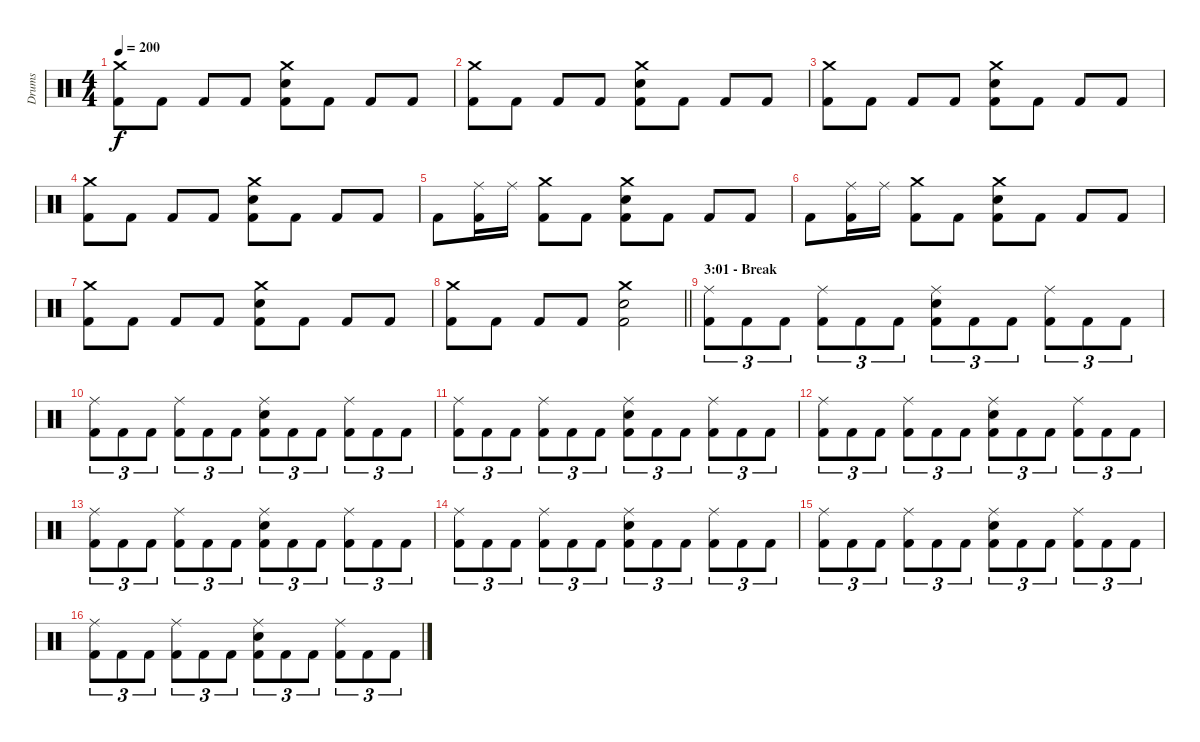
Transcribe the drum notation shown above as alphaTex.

\track ("Drums" "Drums") {instrument percussion}
\staff {score}
\articulation defaults
\ts (4 4)
\tempo 200
\clef neutral
\ks c
("Crash medium (hit)" "Kick (hit) 2").8{dy f} "Kick (hit) 2".8 "Kick (hit) 2".8 "Kick (hit) 2".8 ("Crash medium (hit)" "Electric Snare (hit)" "Kick (hit) 2").8 "Kick (hit) 2".8 "Kick (hit) 2".8 "Kick (hit) 2".8 |
("Crash medium (hit)" "Kick (hit) 2").8 "Kick (hit) 2".8 "Kick (hit) 2".8 "Kick (hit) 2".8 ("Crash medium (hit)" "Electric Snare (hit)" "Kick (hit) 2").8 "Kick (hit) 2".8 "Kick (hit) 2".8 "Kick (hit) 2".8 |
("Crash medium (hit)" "Kick (hit) 2").8 "Kick (hit) 2".8 "Kick (hit) 2".8 "Kick (hit) 2".8 ("Crash medium (hit)" "Electric Snare (hit)" "Kick (hit) 2").8 "Kick (hit) 2".8 "Kick (hit) 2".8 "Kick (hit) 2".8 |
("Crash medium (hit)" "Kick (hit) 2").8 "Kick (hit) 2".8 "Kick (hit) 2".8 "Kick (hit) 2".8 ("Crash medium (hit)" "Electric Snare (hit)" "Kick (hit) 2").8 "Kick (hit) 2".8 "Kick (hit) 2".8 "Kick (hit) 2".8 |
"Kick (hit) 2".8 ("Ride (middle)" "Kick (hit) 2").16 "Ride (middle)".16 ("Crash medium (hit)" "Kick (hit) 2").8 "Kick (hit) 2".8 ("Crash medium (hit)" "Electric Snare (hit)" "Kick (hit) 2").8 "Kick (hit) 2".8 "Kick (hit) 2".8 "Kick (hit) 2".8 |
"Kick (hit) 2".8 ("Ride (middle)" "Kick (hit) 2").16 "Ride (middle)".16 ("Crash medium (hit)" "Kick (hit) 2").8 "Kick (hit) 2".8 ("Crash medium (hit)" "Electric Snare (hit)" "Kick (hit) 2").8 "Kick (hit) 2".8 "Kick (hit) 2".8 "Kick (hit) 2".8 |
("Crash medium (hit)" "Kick (hit) 2").8 "Kick (hit) 2".8 "Kick (hit) 2".8 "Kick (hit) 2".8 ("Crash medium (hit)" "Electric Snare (hit)" "Kick (hit) 2").8 "Kick (hit) 2".8 "Kick (hit) 2".8 "Kick (hit) 2".8 |
\barLineRight lightlight
("Crash medium (hit)" "Kick (hit) 2").8 "Kick (hit) 2".8 "Kick (hit) 2".8 "Kick (hit) 2".8 ("Crash medium (hit)" "Electric Snare (hit)" "Kick (hit) 2").2 |
\section ("" "3:01 - Break")
("Ride (middle)" "Kick (hit) 2").8{tu (3 2)} "Kick (hit) 2".8{tu (3 2)} "Kick (hit) 2".8{tu (3 2)} ("Ride (middle)" "Kick (hit) 2").8{tu (3 2)} "Kick (hit) 2".8{tu (3 2)} "Kick (hit) 2".8{tu (3 2)} ("Ride (middle)" "Electric Snare (hit)" "Kick (hit) 2").8{tu (3 2)} "Kick (hit) 2".8{tu (3 2)} "Kick (hit) 2".8{tu (3 2)} ("Ride (middle)" "Kick (hit) 2").8{tu (3 2)} "Kick (hit) 2".8{tu (3 2)} "Kick (hit) 2".8{tu (3 2)} |
("Ride (middle)" "Kick (hit) 2").8{tu (3 2)} "Kick (hit) 2".8{tu (3 2)} "Kick (hit) 2".8{tu (3 2)} ("Ride (middle)" "Kick (hit) 2").8{tu (3 2)} "Kick (hit) 2".8{tu (3 2)} "Kick (hit) 2".8{tu (3 2)} ("Ride (middle)" "Electric Snare (hit)" "Kick (hit) 2").8{tu (3 2)} "Kick (hit) 2".8{tu (3 2)} "Kick (hit) 2".8{tu (3 2)} ("Ride (middle)" "Kick (hit) 2").8{tu (3 2)} "Kick (hit) 2".8{tu (3 2)} "Kick (hit) 2".8{tu (3 2)} |
("Ride (middle)" "Kick (hit) 2").8{tu (3 2)} "Kick (hit) 2".8{tu (3 2)} "Kick (hit) 2".8{tu (3 2)} ("Ride (middle)" "Kick (hit) 2").8{tu (3 2)} "Kick (hit) 2".8{tu (3 2)} "Kick (hit) 2".8{tu (3 2)} ("Ride (middle)" "Electric Snare (hit)" "Kick (hit) 2").8{tu (3 2)} "Kick (hit) 2".8{tu (3 2)} "Kick (hit) 2".8{tu (3 2)} ("Ride (middle)" "Kick (hit) 2").8{tu (3 2)} "Kick (hit) 2".8{tu (3 2)} "Kick (hit) 2".8{tu (3 2)} |
("Ride (middle)" "Kick (hit) 2").8{tu (3 2)} "Kick (hit) 2".8{tu (3 2)} "Kick (hit) 2".8{tu (3 2)} ("Ride (middle)" "Kick (hit) 2").8{tu (3 2)} "Kick (hit) 2".8{tu (3 2)} "Kick (hit) 2".8{tu (3 2)} ("Ride (middle)" "Electric Snare (hit)" "Kick (hit) 2").8{tu (3 2)} "Kick (hit) 2".8{tu (3 2)} "Kick (hit) 2".8{tu (3 2)} ("Ride (middle)" "Kick (hit) 2").8{tu (3 2)} "Kick (hit) 2".8{tu (3 2)} "Kick (hit) 2".8{tu (3 2)} |
("Ride (middle)" "Kick (hit) 2").8{tu (3 2)} "Kick (hit) 2".8{tu (3 2)} "Kick (hit) 2".8{tu (3 2)} ("Ride (middle)" "Kick (hit) 2").8{tu (3 2)} "Kick (hit) 2".8{tu (3 2)} "Kick (hit) 2".8{tu (3 2)} ("Ride (middle)" "Electric Snare (hit)" "Kick (hit) 2").8{tu (3 2)} "Kick (hit) 2".8{tu (3 2)} "Kick (hit) 2".8{tu (3 2)} ("Ride (middle)" "Kick (hit) 2").8{tu (3 2)} "Kick (hit) 2".8{tu (3 2)} "Kick (hit) 2".8{tu (3 2)} |
("Ride (middle)" "Kick (hit) 2").8{tu (3 2)} "Kick (hit) 2".8{tu (3 2)} "Kick (hit) 2".8{tu (3 2)} ("Ride (middle)" "Kick (hit) 2").8{tu (3 2)} "Kick (hit) 2".8{tu (3 2)} "Kick (hit) 2".8{tu (3 2)} ("Ride (middle)" "Electric Snare (hit)" "Kick (hit) 2").8{tu (3 2)} "Kick (hit) 2".8{tu (3 2)} "Kick (hit) 2".8{tu (3 2)} ("Ride (middle)" "Kick (hit) 2").8{tu (3 2)} "Kick (hit) 2".8{tu (3 2)} "Kick (hit) 2".8{tu (3 2)} |
("Ride (middle)" "Kick (hit) 2").8{tu (3 2)} "Kick (hit) 2".8{tu (3 2)} "Kick (hit) 2".8{tu (3 2)} ("Ride (middle)" "Kick (hit) 2").8{tu (3 2)} "Kick (hit) 2".8{tu (3 2)} "Kick (hit) 2".8{tu (3 2)} ("Ride (middle)" "Electric Snare (hit)" "Kick (hit) 2").8{tu (3 2)} "Kick (hit) 2".8{tu (3 2)} "Kick (hit) 2".8{tu (3 2)} ("Ride (middle)" "Kick (hit) 2").8{tu (3 2)} "Kick (hit) 2".8{tu (3 2)} "Kick (hit) 2".8{tu (3 2)} |
("Ride (middle)" "Kick (hit) 2").8{tu (3 2)} "Kick (hit) 2".8{tu (3 2)} "Kick (hit) 2".8{tu (3 2)} ("Ride (middle)" "Kick (hit) 2").8{tu (3 2)} "Kick (hit) 2".8{tu (3 2)} "Kick (hit) 2".8{tu (3 2)} ("Ride (middle)" "Electric Snare (hit)" "Kick (hit) 2").8{tu (3 2)} "Kick (hit) 2".8{tu (3 2)} "Kick (hit) 2".8{tu (3 2)} ("Ride (middle)" "Kick (hit) 2").8{tu (3 2)} "Kick (hit) 2".8{tu (3 2)} "Kick (hit) 2".8{tu (3 2)}
